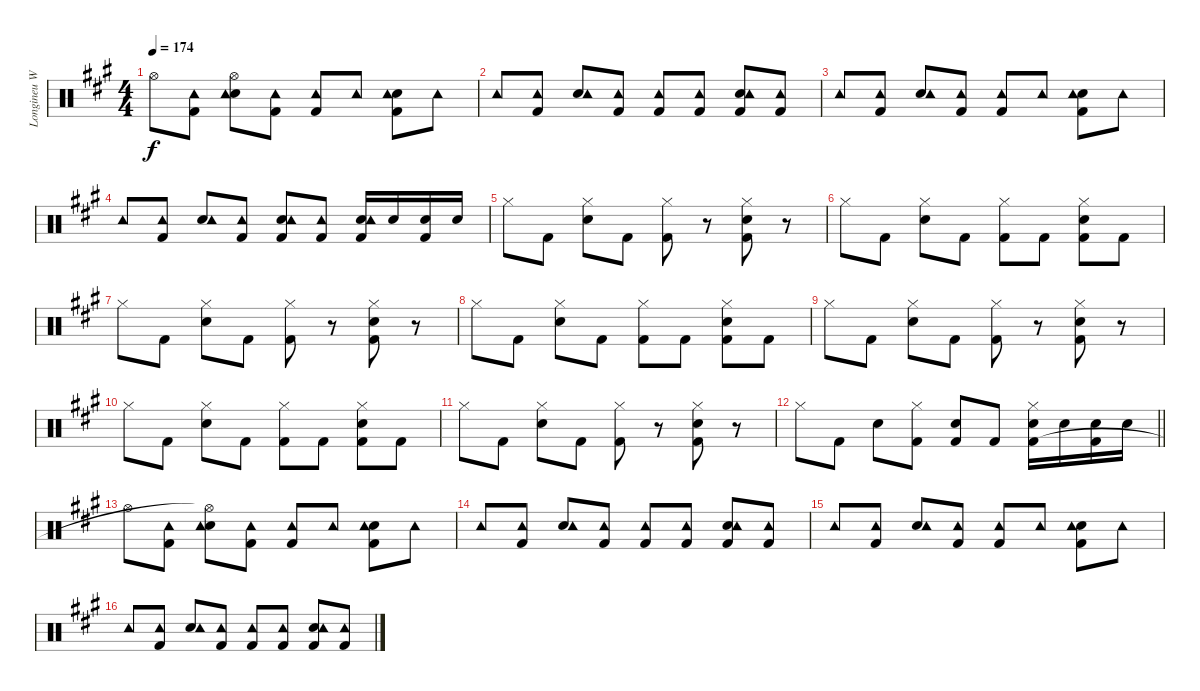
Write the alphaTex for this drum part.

\track ("Longineu W. Parsons III" "Longineu W") {instrument percussion}
\staff {score}
\articulation defaults
\ts (4 4)
\tempo 174
\clef neutral
\ks a "Hi-Hat (open)".8{dy f}
("Tambourine (hit)" "Kick (hit) 2").8 ("Electric Snare (hit)" "Tambourine (hit)" "Hi-Hat (open)").8 ("Tambourine (hit)" "Kick (hit) 2").8 ("Tambourine (hit)" "Kick (hit) 2").8 "Tambourine (hit)".8 ("Electric Snare (hit)" "Tambourine (hit)" "Kick (hit) 2").8 "Tambourine (hit)".8 |
"Tambourine (hit)".8 ("Tambourine (hit)" "Kick (hit) 2").8 ("Electric Snare (hit)" "Tambourine (hit)").8 ("Tambourine (hit)" "Kick (hit) 2").8 ("Tambourine (hit)" "Kick (hit) 2").8 ("Tambourine (hit)" "Kick (hit) 2").8 ("Electric Snare (hit)" "Tambourine (hit)" "Kick (hit) 2").8 ("Tambourine (hit)" "Kick (hit) 2").8 |
"Tambourine (hit)".8 ("Tambourine (hit)" "Kick (hit) 2").8 ("Electric Snare (hit)" "Tambourine (hit)").8 ("Tambourine (hit)" "Kick (hit) 2").8 ("Tambourine (hit)" "Kick (hit) 2").8 "Tambourine (hit)".8 ("Electric Snare (hit)" "Tambourine (hit)" "Kick (hit) 2").8 "Tambourine (hit)".8 |
"Tambourine (hit)".8 ("Tambourine (hit)" "Kick (hit) 2").8 ("Electric Snare (hit)" "Tambourine (hit)").8 ("Tambourine (hit)" "Kick (hit) 2").8 ("Electric Snare (hit)" "Tambourine (hit)" "Kick (hit) 2").8 ("Tambourine (hit)" "Kick (hit) 2").8 ("Electric Snare (hit)" "Tambourine (hit)" "Kick (hit) 2").16 "Electric Snare (hit)".16 ("Electric Snare (hit)" "Kick (hit) 2").16 "Electric Snare (hit)".16 |
"Hi-Hat (closed)".8 "Kick (hit) 2".8 ("Electric Snare (hit)" "Hi-Hat (closed)").8 "Kick (hit) 2".8 ("Hi-Hat (closed)" "Kick (hit) 2").8 r.8 ("Electric Snare (hit)" "Hi-Hat (closed)" "Kick (hit) 2").8 r.8 |
"Hi-Hat (closed)".8 "Kick (hit) 2".8 ("Electric Snare (hit)" "Hi-Hat (closed)").8 "Kick (hit) 2".8 ("Hi-Hat (closed)" "Kick (hit) 2").8 "Kick (hit) 2".8 ("Electric Snare (hit)" "Hi-Hat (closed)" "Kick (hit) 2").8 "Kick (hit) 2".8 |
"Hi-Hat (closed)".8 "Kick (hit) 2".8 ("Electric Snare (hit)" "Hi-Hat (closed)").8 "Kick (hit) 2".8 ("Hi-Hat (closed)" "Kick (hit) 2").8 r.8 ("Electric Snare (hit)" "Hi-Hat (closed)" "Kick (hit) 2").8 r.8 |
"Hi-Hat (closed)".8 "Kick (hit) 2".8 ("Electric Snare (hit)" "Hi-Hat (closed)").8 "Kick (hit) 2".8 ("Hi-Hat (closed)" "Kick (hit) 2").8 "Kick (hit) 2".8 ("Electric Snare (hit)" "Hi-Hat (closed)" "Kick (hit) 2").8 "Kick (hit) 2".8 |
"Hi-Hat (closed)".8 "Kick (hit) 2".8 ("Electric Snare (hit)" "Hi-Hat (closed)").8 "Kick (hit) 2".8 ("Hi-Hat (closed)" "Kick (hit) 2").8 r.8 ("Electric Snare (hit)" "Hi-Hat (closed)" "Kick (hit) 2").8 r.8 |
"Hi-Hat (closed)".8 "Kick (hit) 2".8 ("Electric Snare (hit)" "Hi-Hat (closed)").8 "Kick (hit) 2".8 ("Hi-Hat (closed)" "Kick (hit) 2").8 "Kick (hit) 2".8 ("Electric Snare (hit)" "Hi-Hat (closed)" "Kick (hit) 2").8 "Kick (hit) 2".8 |
"Hi-Hat (closed)".8 "Kick (hit) 2".8 ("Electric Snare (hit)" "Hi-Hat (closed)").8 "Kick (hit) 2".8 ("Hi-Hat (closed)" "Kick (hit) 2").8 r.8 ("Electric Snare (hit)" "Hi-Hat (closed)" "Kick (hit) 2").8 r.8 |
\barLineRight lightlight "Hi-Hat (closed)".8 "Kick (hit) 2".8 "Electric Snare (hit)".8
("Hi-Hat (closed)" "Kick (hit) 2").8 ("Electric Snare (hit)" "Kick (hit) 2").8 "Kick (hit) 2".8 ("Electric Snare (hit)" "Hi-Hat (closed)" "Kick (hit) 2").16 "Electric Snare (hit)".16 ("Electric Snare (hit)" "Kick (hit) 2").16 "Electric Snare (hit)".16 |
"Hi-Hat (open)".8 ("Tambourine (hit)" "Kick (hit) 2").8 ("Electric Snare (hit)" "Tambourine (hit)" "Hi-Hat (open)"{t}).8 ("Tambourine (hit)" "Kick (hit) 2").8 ("Tambourine (hit)" "Kick (hit) 2").8 "Tambourine (hit)".8 ("Electric Snare (hit)" "Tambourine (hit)" "Kick (hit) 2").8 "Tambourine (hit)".8 |
"Tambourine (hit)".8 ("Tambourine (hit)" "Kick (hit) 2").8 ("Electric Snare (hit)" "Tambourine (hit)").8 ("Tambourine (hit)" "Kick (hit) 2").8 ("Tambourine (hit)" "Kick (hit) 2").8 ("Tambourine (hit)" "Kick (hit) 2").8 ("Electric Snare (hit)" "Tambourine (hit)" "Kick (hit) 2").8 ("Tambourine (hit)" "Kick (hit) 2").8 |
"Tambourine (hit)".8 ("Tambourine (hit)" "Kick (hit) 2").8 ("Electric Snare (hit)" "Tambourine (hit)").8 ("Tambourine (hit)" "Kick (hit) 2").8 ("Tambourine (hit)" "Kick (hit) 2").8 "Tambourine (hit)".8 ("Electric Snare (hit)" "Tambourine (hit)" "Kick (hit) 2").8 "Tambourine (hit)".8 |
"Tambourine (hit)".8 ("Tambourine (hit)" "Kick (hit) 2").8 ("Electric Snare (hit)" "Tambourine (hit)").8 ("Tambourine (hit)" "Kick (hit) 2").8 ("Tambourine (hit)" "Kick (hit) 2").8 ("Tambourine (hit)" "Kick (hit) 2").8 ("Electric Snare (hit)" "Tambourine (hit)" "Kick (hit) 2").8 ("Tambourine (hit)" "Kick (hit) 2").8
